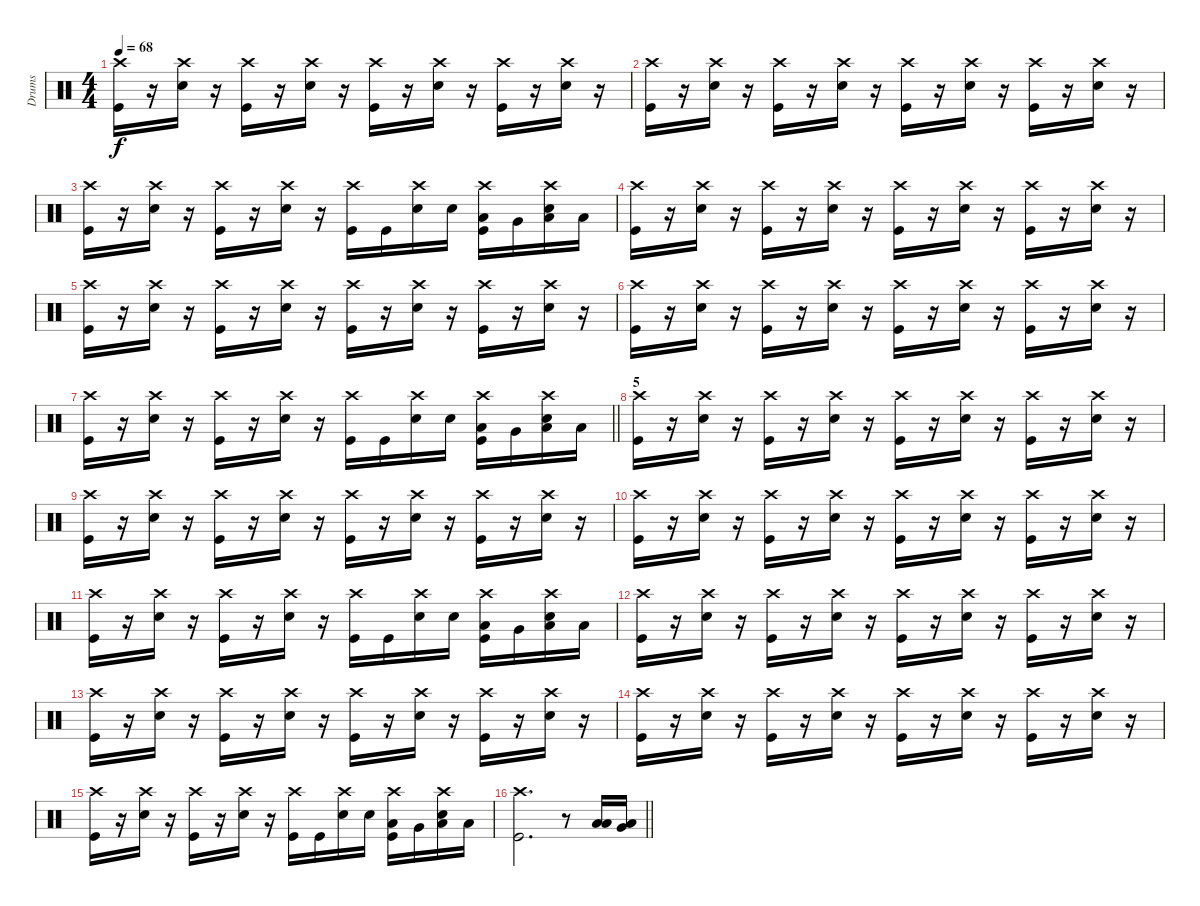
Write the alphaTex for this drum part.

\track ("Drums" "Drums") {instrument percussion}
\staff {score}
\articulation defaults
\ts (4 4)
\tempo 68
\clef neutral
\ks c
("Crash high (hit)" "Kick (hit)").16{dy f} r.16 ("Crash high (hit)" "Snare (hit) 2").16 r.16 ("Crash high (hit)" "Kick (hit)").16 r.16 ("Crash high (hit)" "Snare (hit) 2").16 r.16 ("Crash high (hit)" "Kick (hit)").16 r.16 ("Crash high (hit)" "Snare (hit) 2").16 r.16 ("Crash high (hit)" "Kick (hit)").16 r.16 ("Crash high (hit)" "Snare (hit) 2").16 r.16 |
("Crash high (hit)" "Kick (hit)").16 r.16 ("Crash high (hit)" "Snare (hit) 2").16 r.16 ("Crash high (hit)" "Kick (hit)").16 r.16 ("Crash high (hit)" "Snare (hit) 2").16 r.16 ("Crash high (hit)" "Kick (hit)").16 r.16 ("Crash high (hit)" "Snare (hit) 2").16 r.16 ("Crash high (hit)" "Kick (hit)").16 r.16 ("Crash high (hit)" "Snare (hit) 2").16 r.16 |
("Crash high (hit)" "Kick (hit)").16 r.16 ("Crash high (hit)" "Snare (hit) 2").16 r.16 ("Crash high (hit)" "Kick (hit)").16 r.16 ("Crash high (hit)" "Snare (hit) 2").16 r.16 ("Crash high (hit)" "Kick (hit)").16 "Kick (hit)".16 ("Crash high (hit)" "Snare (hit) 2").16 "Snare (hit) 2".16 ("Crash high (hit)" "Low Tom (hit)" "Kick (hit)").16 "Very Low Tom (hit)".16 ("Crash high (hit)" "Low Floor Tom (hit)" "Snare (hit) 2").16 "Low Floor Tom (hit)".16 |
("Crash high (hit)" "Kick (hit)").16 r.16 ("Crash high (hit)" "Snare (hit) 2").16 r.16 ("Crash high (hit)" "Kick (hit)").16 r.16 ("Crash high (hit)" "Snare (hit) 2").16 r.16 ("Crash high (hit)" "Kick (hit)").16 r.16 ("Crash high (hit)" "Snare (hit) 2").16 r.16 ("Crash high (hit)" "Kick (hit)").16 r.16 ("Crash high (hit)" "Snare (hit) 2").16 r.16 |
("Crash high (hit)" "Kick (hit)").16 r.16 ("Crash high (hit)" "Snare (hit) 2").16 r.16 ("Crash high (hit)" "Kick (hit)").16 r.16 ("Crash high (hit)" "Snare (hit) 2").16 r.16 ("Crash high (hit)" "Kick (hit)").16 r.16 ("Crash high (hit)" "Snare (hit) 2").16 r.16 ("Crash high (hit)" "Kick (hit)").16 r.16 ("Crash high (hit)" "Snare (hit) 2").16 r.16 |
("Crash high (hit)" "Kick (hit)").16 r.16 ("Crash high (hit)" "Snare (hit) 2").16 r.16 ("Crash high (hit)" "Kick (hit)").16 r.16 ("Crash high (hit)" "Snare (hit) 2").16 r.16 ("Crash high (hit)" "Kick (hit)").16 r.16 ("Crash high (hit)" "Snare (hit) 2").16 r.16 ("Crash high (hit)" "Kick (hit)").16 r.16 ("Crash high (hit)" "Snare (hit) 2").16 r.16 |
\barLineRight lightlight
("Crash high (hit)" "Kick (hit)").16 r.16 ("Crash high (hit)" "Snare (hit) 2").16 r.16 ("Crash high (hit)" "Kick (hit)").16 r.16 ("Crash high (hit)" "Snare (hit) 2").16 r.16 ("Crash high (hit)" "Kick (hit)").16 "Kick (hit)".16 ("Crash high (hit)" "Snare (hit) 2").16 "Snare (hit) 2".16 ("Crash high (hit)" "Low Tom (hit)" "Kick (hit)").16 "Very Low Tom (hit)".16 ("Crash high (hit)" "Low Floor Tom (hit)" "Snare (hit) 2").16 "Low Floor Tom (hit)".16 |
\section ("" "5")
("Crash high (hit)" "Kick (hit)").16 r.16 ("Crash high (hit)" "Snare (hit) 2").16 r.16 ("Crash high (hit)" "Kick (hit)").16 r.16 ("Crash high (hit)" "Snare (hit) 2").16 r.16 ("Crash high (hit)" "Kick (hit)").16 r.16 ("Crash high (hit)" "Snare (hit) 2").16 r.16 ("Crash high (hit)" "Kick (hit)").16 r.16 ("Crash high (hit)" "Snare (hit) 2").16 r.16 |
("Crash high (hit)" "Kick (hit)").16 r.16 ("Crash high (hit)" "Snare (hit) 2").16 r.16 ("Crash high (hit)" "Kick (hit)").16 r.16 ("Crash high (hit)" "Snare (hit) 2").16 r.16 ("Crash high (hit)" "Kick (hit)").16 r.16 ("Crash high (hit)" "Snare (hit) 2").16 r.16 ("Crash high (hit)" "Kick (hit)").16 r.16 ("Crash high (hit)" "Snare (hit) 2").16 r.16 |
("Crash high (hit)" "Kick (hit)").16 r.16 ("Crash high (hit)" "Snare (hit) 2").16 r.16 ("Crash high (hit)" "Kick (hit)").16 r.16 ("Crash high (hit)" "Snare (hit) 2").16 r.16 ("Crash high (hit)" "Kick (hit)").16 r.16 ("Crash high (hit)" "Snare (hit) 2").16 r.16 ("Crash high (hit)" "Kick (hit)").16 r.16 ("Crash high (hit)" "Snare (hit) 2").16 r.16 |
("Crash high (hit)" "Kick (hit)").16 r.16 ("Crash high (hit)" "Snare (hit) 2").16 r.16 ("Crash high (hit)" "Kick (hit)").16 r.16 ("Crash high (hit)" "Snare (hit) 2").16 r.16 ("Crash high (hit)" "Kick (hit)").16 "Kick (hit)".16 ("Crash high (hit)" "Snare (hit) 2").16 "Snare (hit) 2".16 ("Crash high (hit)" "Low Tom (hit)" "Kick (hit)").16 "Very Low Tom (hit)".16 ("Crash high (hit)" "Low Floor Tom (hit)" "Snare (hit) 2").16 "Low Floor Tom (hit)".16 |
("Crash high (hit)" "Kick (hit)").16 r.16 ("Crash high (hit)" "Snare (hit) 2").16 r.16 ("Crash high (hit)" "Kick (hit)").16 r.16 ("Crash high (hit)" "Snare (hit) 2").16 r.16 ("Crash high (hit)" "Kick (hit)").16 r.16 ("Crash high (hit)" "Snare (hit) 2").16 r.16 ("Crash high (hit)" "Kick (hit)").16 r.16 ("Crash high (hit)" "Snare (hit) 2").16 r.16 |
("Crash high (hit)" "Kick (hit)").16 r.16 ("Crash high (hit)" "Snare (hit) 2").16 r.16 ("Crash high (hit)" "Kick (hit)").16 r.16 ("Crash high (hit)" "Snare (hit) 2").16 r.16 ("Crash high (hit)" "Kick (hit)").16 r.16 ("Crash high (hit)" "Snare (hit) 2").16 r.16 ("Crash high (hit)" "Kick (hit)").16 r.16 ("Crash high (hit)" "Snare (hit) 2").16 r.16 |
("Crash high (hit)" "Kick (hit)").16 r.16 ("Crash high (hit)" "Snare (hit) 2").16 r.16 ("Crash high (hit)" "Kick (hit)").16 r.16 ("Crash high (hit)" "Snare (hit) 2").16 r.16 ("Crash high (hit)" "Kick (hit)").16 r.16 ("Crash high (hit)" "Snare (hit) 2").16 r.16 ("Crash high (hit)" "Kick (hit)").16 r.16 ("Crash high (hit)" "Snare (hit) 2").16 r.16 |
("Crash high (hit)" "Kick (hit)").16 r.16 ("Crash high (hit)" "Snare (hit) 2").16 r.16 ("Crash high (hit)" "Kick (hit)").16 r.16 ("Crash high (hit)" "Snare (hit) 2").16 r.16 ("Crash high (hit)" "Kick (hit)").16 "Kick (hit)".16 ("Crash high (hit)" "Snare (hit) 2").16 "Snare (hit) 2".16 ("Crash high (hit)" "Low Tom (hit)" "Kick (hit)").16 "Very Low Tom (hit)".16 ("Crash high (hit)" "Low Floor Tom (hit)" "Snare (hit) 2").16 "Low Floor Tom (hit)".16 |
\barLineRight lightlight
("Crash high (hit)" "Kick (hit)").2{d} r.8 ("Low Floor Tom (hit)" "Low Tom (hit)").16 ("Low Floor Tom (hit)" "Very Low Tom (hit)").16
